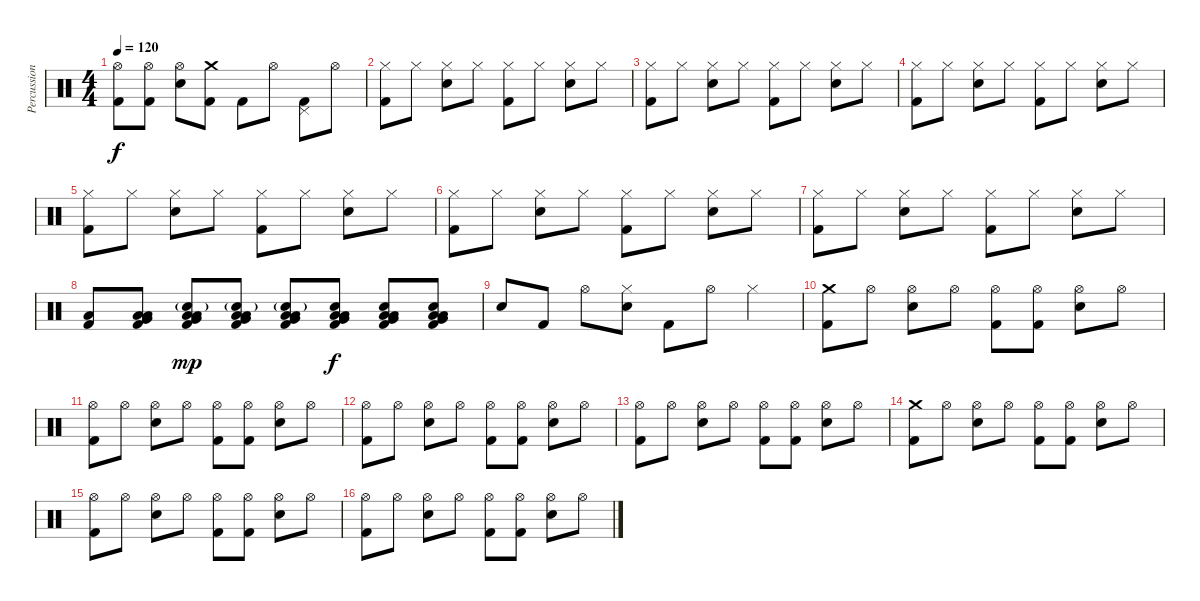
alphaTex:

\track ("Percussions" "Percussion") {instrument percussion}
\staff {score}
\articulation defaults
\ts (4 4)
\tempo 120
\clef neutral
\ks c
("Hi-Hat (open)" "Kick (hit) 2").8{dy f} ("Hi-Hat (open)" "Kick (hit) 2").8 ("Hi-Hat (open)" "Electric Snare (hit)").8 ("Crash medium (hit)" "Kick (hit) 2").8 "Kick (hit) 2".8 "Hi-Hat (open)".8 ("Pedal Hi-Hat (hit)" "Kick (hit) 2").8 "Hi-Hat (open)".8 |
("Hi-Hat (closed)" "Kick (hit) 2").8 "Hi-Hat (closed)".8 ("Hi-Hat (closed)" "Electric Snare (hit)").8 "Hi-Hat (closed)".8 ("Hi-Hat (closed)" "Kick (hit) 2").8 "Hi-Hat (closed)".8 ("Hi-Hat (closed)" "Electric Snare (hit)").8 "Hi-Hat (closed)".8 |
("Hi-Hat (closed)" "Kick (hit) 2").8 "Hi-Hat (closed)".8 ("Hi-Hat (closed)" "Electric Snare (hit)").8 "Hi-Hat (closed)".8 ("Hi-Hat (closed)" "Kick (hit) 2").8 "Hi-Hat (closed)".8 ("Hi-Hat (closed)" "Electric Snare (hit)").8 "Hi-Hat (closed)".8 |
("Hi-Hat (closed)" "Kick (hit) 2").8 "Hi-Hat (closed)".8 ("Hi-Hat (closed)" "Electric Snare (hit)").8 "Hi-Hat (closed)".8 ("Hi-Hat (closed)" "Kick (hit) 2").8 "Hi-Hat (closed)".8 ("Hi-Hat (closed)" "Electric Snare (hit)").8 "Hi-Hat (closed)".8 |
("Hi-Hat (closed)" "Kick (hit) 2").8 "Hi-Hat (closed)".8 ("Hi-Hat (closed)" "Electric Snare (hit)").8 "Hi-Hat (closed)".8 ("Hi-Hat (closed)" "Kick (hit) 2").8 "Hi-Hat (closed)".8 ("Hi-Hat (closed)" "Electric Snare (hit)").8 "Hi-Hat (closed)".8 |
("Hi-Hat (closed)" "Kick (hit) 2").8 "Hi-Hat (closed)".8 ("Hi-Hat (closed)" "Electric Snare (hit)").8 "Hi-Hat (closed)".8 ("Hi-Hat (closed)" "Kick (hit) 2").8 "Hi-Hat (closed)".8 ("Hi-Hat (closed)" "Electric Snare (hit)").8 "Hi-Hat (closed)".8 |
("Hi-Hat (closed)" "Kick (hit) 2").8 "Hi-Hat (closed)".8 ("Hi-Hat (closed)" "Electric Snare (hit)").8 "Hi-Hat (closed)".8 ("Hi-Hat (closed)" "Kick (hit) 2").8 "Hi-Hat (closed)".8 ("Hi-Hat (closed)" "Electric Snare (hit)").8 "Hi-Hat (closed)".8 |
("Low Floor Tom (hit)" "Kick (hit) 2").8 ("Low Tom (hit)" "Very Low Tom (hit)" "Low Floor Tom (hit)" "Kick (hit) 2").8 ("Low Tom (hit)" "Electric Snare (hit)"{g} "Very Low Tom (hit)" "Low Floor Tom (hit)" "Kick (hit) 2").8{dy mp} ("Low Tom (hit)" "Electric Snare (hit)"{g} "Very Low Tom (hit)" "Low Floor Tom (hit)" "Kick (hit) 2").8 ("Low Tom (hit)" "Electric Snare (hit)"{g} "Very Low Tom (hit)" "Low Floor Tom (hit)" "Kick (hit) 2").8 ("Low Tom (hit)" "Electric Snare (hit)" "Very Low Tom (hit)" "Low Floor Tom (hit)" "Kick (hit) 2").8{dy f} ("Low Tom (hit)" "Electric Snare (hit)" "Very Low Tom (hit)" "Low Floor Tom (hit)" "Kick (hit) 2").8 ("Low Tom (hit)" "Electric Snare (hit)" "Very Low Tom (hit)" "Low Floor Tom (hit)" "Kick (hit) 2").8 |
"Electric Snare (hit)".8 "Kick (hit) 2".8 "Hi-Hat (open)".8 ("Hi-Hat (closed)" "Electric Snare (hit)").8 "Kick (hit) 2".8 "Hi-Hat (open)".8 "Hi-Hat (closed)".4 |
("Crash medium (hit)" "Kick (hit) 2").8 "Hi-Hat (open)".8 ("Hi-Hat (open)" "Electric Snare (hit)").8 "Hi-Hat (open)".8 ("Hi-Hat (open)" "Kick (hit) 2").8 ("Hi-Hat (open)" "Kick (hit) 2").8 ("Hi-Hat (open)" "Electric Snare (hit)").8 "Hi-Hat (open)".8 |
("Hi-Hat (open)" "Kick (hit) 2").8 "Hi-Hat (open)".8 ("Hi-Hat (open)" "Electric Snare (hit)").8 "Hi-Hat (open)".8 ("Hi-Hat (open)" "Kick (hit) 2").8 ("Hi-Hat (open)" "Kick (hit) 2").8 ("Hi-Hat (open)" "Electric Snare (hit)").8 "Hi-Hat (open)".8 |
("Hi-Hat (open)" "Kick (hit) 2").8 "Hi-Hat (open)".8 ("Hi-Hat (open)" "Electric Snare (hit)").8 "Hi-Hat (open)".8 ("Hi-Hat (open)" "Kick (hit) 2").8 ("Hi-Hat (open)" "Kick (hit) 2").8 ("Hi-Hat (open)" "Electric Snare (hit)").8 "Hi-Hat (open)".8 |
("Hi-Hat (open)" "Kick (hit) 2").8 "Hi-Hat (open)".8 ("Hi-Hat (open)" "Electric Snare (hit)").8 "Hi-Hat (open)".8 ("Hi-Hat (open)" "Kick (hit) 2").8 ("Hi-Hat (open)" "Kick (hit) 2").8 ("Hi-Hat (open)" "Electric Snare (hit)").8 "Hi-Hat (open)".8 |
("Crash medium (hit)" "Kick (hit) 2").8 "Hi-Hat (open)".8 ("Hi-Hat (open)" "Electric Snare (hit)").8 "Hi-Hat (open)".8 ("Hi-Hat (open)" "Kick (hit) 2").8 ("Hi-Hat (open)" "Kick (hit) 2").8 ("Hi-Hat (open)" "Electric Snare (hit)").8 "Hi-Hat (open)".8 |
("Hi-Hat (open)" "Kick (hit) 2").8 "Hi-Hat (open)".8 ("Hi-Hat (open)" "Electric Snare (hit)").8 "Hi-Hat (open)".8 ("Hi-Hat (open)" "Kick (hit) 2").8 ("Hi-Hat (open)" "Kick (hit) 2").8 ("Hi-Hat (open)" "Electric Snare (hit)").8 "Hi-Hat (open)".8 |
("Hi-Hat (open)" "Kick (hit) 2").8 "Hi-Hat (open)".8 ("Hi-Hat (open)" "Electric Snare (hit)").8 "Hi-Hat (open)".8 ("Hi-Hat (open)" "Kick (hit) 2").8 ("Hi-Hat (open)" "Kick (hit) 2").8 ("Hi-Hat (open)" "Electric Snare (hit)").8 "Hi-Hat (open)".8
